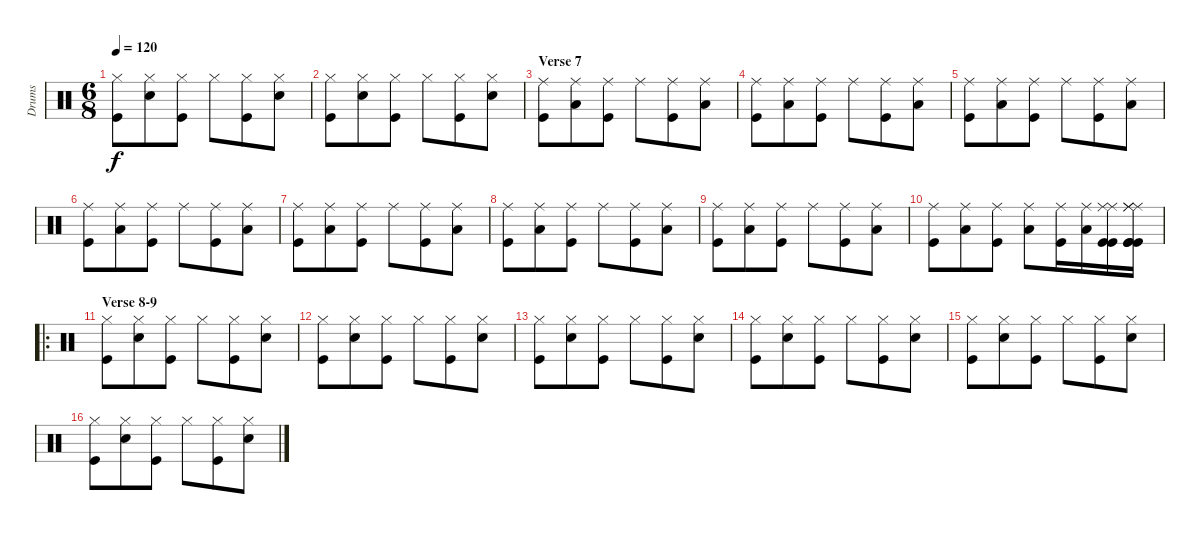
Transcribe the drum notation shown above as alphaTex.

\track ("Drums" "Drums") {instrument percussion}
\staff {score}
\articulation defaults
\ts (6 8)
\tempo 120
\clef neutral
\ks c
("Hi-Hat (closed)" "Kick (hit)").8{dy f} ("Hi-Hat (closed)" "Electric Snare (hit)").8 ("Hi-Hat (closed)" "Kick (hit)").8 "Hi-Hat (closed)".8 ("Hi-Hat (closed)" "Kick (hit)").8 ("Hi-Hat (closed)" "Electric Snare (hit)").8 |
("Hi-Hat (closed)" "Kick (hit)").8 ("Hi-Hat (closed)" "Electric Snare (hit)").8 ("Hi-Hat (closed)" "Kick (hit)").8 "Hi-Hat (closed)".8 ("Hi-Hat (closed)" "Kick (hit)").8 ("Hi-Hat (closed)" "Electric Snare (hit)").8 |
\section ("" "Verse 7")
("Ride (middle)" "Kick (hit)").8 ("Ride (middle)" "Low Tom (hit)").8 ("Ride (middle)" "Kick (hit)").8 "Ride (middle)".8 ("Ride (middle)" "Kick (hit)").8 ("Ride (middle)" "Low Tom (hit)").8 |
("Ride (middle)" "Kick (hit)").8 ("Ride (middle)" "Low Tom (hit)").8 ("Ride (middle)" "Kick (hit)").8 "Ride (middle)".8 ("Ride (middle)" "Kick (hit)").8 ("Ride (middle)" "Low Tom (hit)").8 |
("Ride (middle)" "Kick (hit)").8 ("Ride (middle)" "Low Tom (hit)").8 ("Ride (middle)" "Kick (hit)").8 "Ride (middle)".8 ("Ride (middle)" "Kick (hit)").8 ("Ride (middle)" "Low Tom (hit)").8 |
("Ride (middle)" "Kick (hit)").8 ("Ride (middle)" "Low Tom (hit)").8 ("Ride (middle)" "Kick (hit)").8 "Ride (middle)".8 ("Ride (middle)" "Kick (hit)").8 ("Ride (middle)" "Low Tom (hit)").8 |
("Ride (middle)" "Kick (hit)").8 ("Ride (middle)" "Low Tom (hit)").8 ("Ride (middle)" "Kick (hit)").8 "Ride (middle)".8 ("Ride (middle)" "Kick (hit)").8 ("Ride (middle)" "Low Tom (hit)").8 |
("Ride (middle)" "Kick (hit)").8 ("Ride (middle)" "Low Tom (hit)").8 ("Ride (middle)" "Kick (hit)").8 "Ride (middle)".8 ("Ride (middle)" "Kick (hit)").8 ("Ride (middle)" "Low Tom (hit)").8 |
("Ride (middle)" "Kick (hit)").8 ("Ride (middle)" "Low Tom (hit)").8 ("Ride (middle)" "Kick (hit)").8 "Ride (middle)".8 ("Ride (middle)" "Kick (hit)").8 ("Ride (middle)" "Low Tom (hit)").8 |
("Ride (middle)" "Kick (hit)").8 ("Ride (middle)" "Low Tom (hit)").8 ("Ride (middle)" "Kick (hit)").8 ("Ride (middle)" "Low Tom (hit)").8 ("Ride (middle)" "Kick (hit)").16 ("Ride (middle)" "Low Tom (hit)").16 ("Ride (middle)" "Ride (middle)" "Kick (hit)" "Kick (hit)").16 ("Ride (middle)" "Ride (middle)" "Ride (middle)" "Kick (hit)" "Kick (hit)" "Kick (hit)").16 |
\ro
\section ("" "Verse 8-9")
("Hi-Hat (closed)" "Kick (hit)").8 ("Hi-Hat (closed)" "Electric Snare (hit)").8 ("Hi-Hat (closed)" "Kick (hit)").8 "Hi-Hat (closed)".8 ("Hi-Hat (closed)" "Kick (hit)").8 ("Hi-Hat (closed)" "Electric Snare (hit)").8 |
("Hi-Hat (closed)" "Kick (hit)").8 ("Hi-Hat (closed)" "Electric Snare (hit)").8 ("Hi-Hat (closed)" "Kick (hit)").8 "Hi-Hat (closed)".8 ("Hi-Hat (closed)" "Kick (hit)").8 ("Hi-Hat (closed)" "Electric Snare (hit)").8 |
("Hi-Hat (closed)" "Kick (hit)").8 ("Hi-Hat (closed)" "Electric Snare (hit)").8 ("Hi-Hat (closed)" "Kick (hit)").8 "Hi-Hat (closed)".8 ("Hi-Hat (closed)" "Kick (hit)").8 ("Hi-Hat (closed)" "Electric Snare (hit)").8 |
("Hi-Hat (closed)" "Kick (hit)").8 ("Hi-Hat (closed)" "Electric Snare (hit)").8 ("Hi-Hat (closed)" "Kick (hit)").8 "Hi-Hat (closed)".8 ("Hi-Hat (closed)" "Kick (hit)").8 ("Hi-Hat (closed)" "Electric Snare (hit)").8 |
("Hi-Hat (closed)" "Kick (hit)").8 ("Hi-Hat (closed)" "Electric Snare (hit)").8 ("Hi-Hat (closed)" "Kick (hit)").8 "Hi-Hat (closed)".8 ("Hi-Hat (closed)" "Kick (hit)").8 ("Hi-Hat (closed)" "Electric Snare (hit)").8 |
("Hi-Hat (closed)" "Kick (hit)").8 ("Hi-Hat (closed)" "Electric Snare (hit)").8 ("Hi-Hat (closed)" "Kick (hit)").8 "Hi-Hat (closed)".8 ("Hi-Hat (closed)" "Kick (hit)").8 ("Hi-Hat (closed)" "Electric Snare (hit)").8
